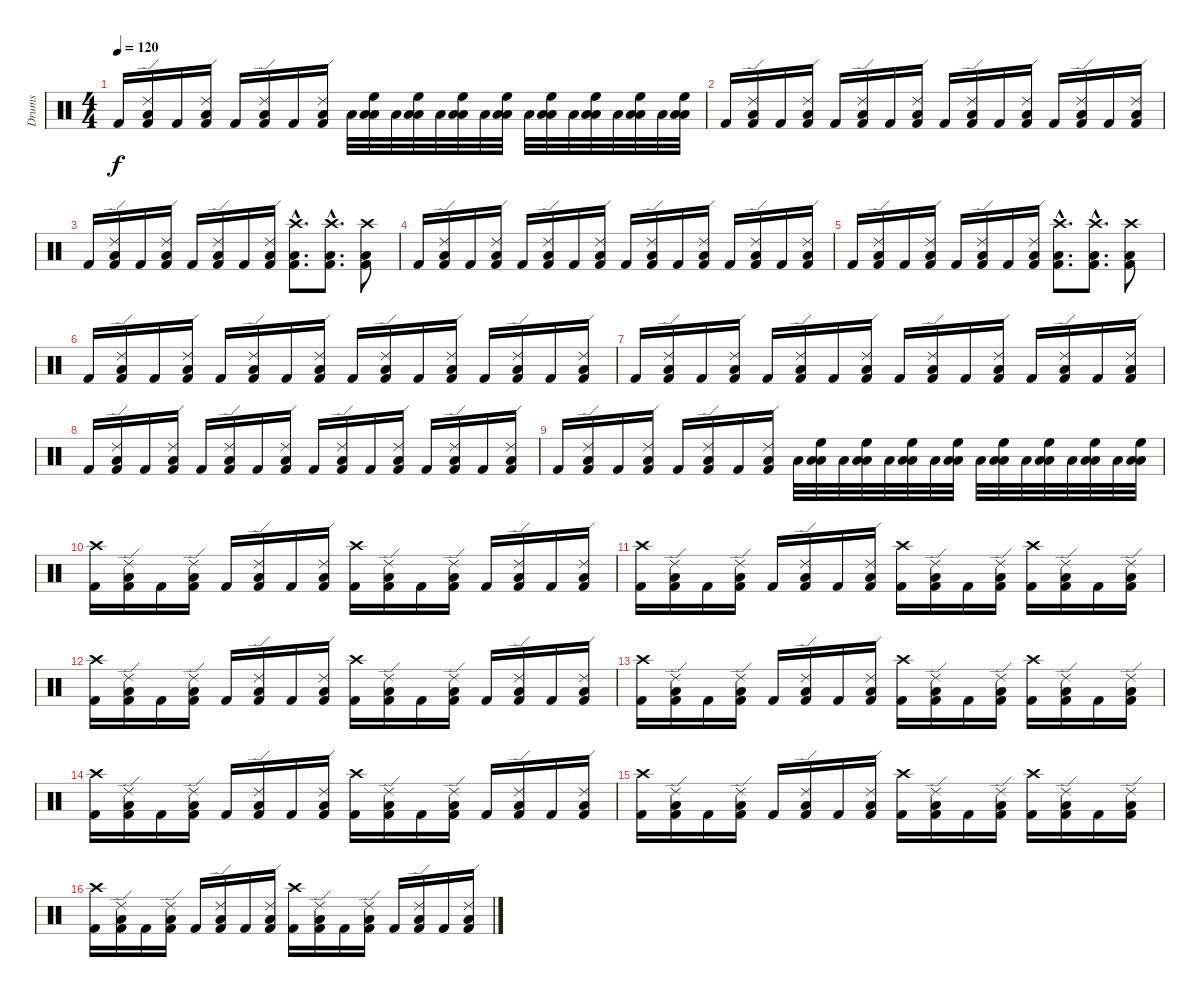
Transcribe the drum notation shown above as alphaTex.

\track ("Drums" "Drums") {instrument percussion}
\staff {score}
\articulation defaults
\ts (4 4)
\tempo 120
\clef neutral
\ks c "Kick (hit) 2".16{dy f}
("Ride (edge) 2" "Low Tom (hit)" "Kick (hit) 2").16 "Kick (hit) 2".16 ("Ride (edge) 2" "Low Tom (hit)" "Kick (hit) 2").16 "Kick (hit) 2".16 ("Ride (edge) 2" "Low Tom (hit)" "Kick (hit) 2").16 "Kick (hit) 2".16 ("Ride (edge) 2" "Low Tom (hit)" "Kick (hit) 2").16 "Low Floor Tom (hit)".32 ("Low Tom (hit)" "High Floor Tom (hit)" "Low Floor Tom (hit)").32 "Low Floor Tom (hit)".32 ("Low Tom (hit)" "High Floor Tom (hit)" "Low Floor Tom (hit)").32 "Low Floor Tom (hit)".32 ("Low Tom (hit)" "High Floor Tom (hit)" "Low Floor Tom (hit)").32 "Low Floor Tom (hit)".32 ("Low Tom (hit)" "High Floor Tom (hit)" "Low Floor Tom (hit)").32 "Low Floor Tom (hit)".32 ("Low Tom (hit)" "High Floor Tom (hit)" "Low Floor Tom (hit)").32 "Low Floor Tom (hit)".32 ("Low Tom (hit)" "High Floor Tom (hit)" "Low Floor Tom (hit)").32 "Low Floor Tom (hit)".32 ("Low Tom (hit)" "High Floor Tom (hit)" "Low Floor Tom (hit)").32 "Low Floor Tom (hit)".32 ("Low Tom (hit)" "High Floor Tom (hit)" "Low Floor Tom (hit)").32 |
"Kick (hit) 2".16 ("Ride (edge) 2" "Low Tom (hit)" "Kick (hit) 2").16 "Kick (hit) 2".16 ("Ride (edge) 2" "Low Tom (hit)" "Kick (hit) 2").16 "Kick (hit) 2".16 ("Ride (edge) 2" "Low Tom (hit)" "Kick (hit) 2").16 "Kick (hit) 2".16 ("Ride (edge) 2" "Low Tom (hit)" "Kick (hit) 2").16 "Kick (hit) 2".16 ("Ride (edge) 2" "Low Tom (hit)" "Kick (hit) 2").16 "Kick (hit) 2".16 ("Ride (edge) 2" "Low Tom (hit)" "Kick (hit) 2").16 "Kick (hit) 2".16 ("Ride (edge) 2" "Low Tom (hit)" "Kick (hit) 2").16 "Kick (hit) 2".16 ("Ride (edge) 2" "Low Tom (hit)" "Kick (hit) 2").16 |
"Kick (hit) 2".16 ("Ride (edge) 2" "Low Tom (hit)" "Kick (hit) 2").16 "Kick (hit) 2".16 ("Ride (edge) 2" "Low Tom (hit)" "Kick (hit) 2").16 "Kick (hit) 2".16 ("Ride (edge) 2" "Low Tom (hit)" "Kick (hit) 2").16 "Kick (hit) 2".16 ("Ride (edge) 2" "Low Tom (hit)" "Kick (hit) 2").16 ("Crash high (hit)"{hac} "Low Tom (hit)"{hac} "Kick (hit) 2"{hac}).8{d} ("Crash high (hit)"{hac} "Low Tom (hit)"{hac} "Kick (hit) 2"{hac}).8{d} ("Crash high (hit)" "Low Tom (hit)" "Kick (hit) 2").8 |
"Kick (hit) 2".16 ("Ride (edge) 2" "Low Tom (hit)" "Kick (hit) 2").16 "Kick (hit) 2".16 ("Ride (edge) 2" "Low Tom (hit)" "Kick (hit) 2").16 "Kick (hit) 2".16 ("Ride (edge) 2" "Low Tom (hit)" "Kick (hit) 2").16 "Kick (hit) 2".16 ("Ride (edge) 2" "Low Tom (hit)" "Kick (hit) 2").16 "Kick (hit) 2".16 ("Ride (edge) 2" "Low Tom (hit)" "Kick (hit) 2").16 "Kick (hit) 2".16 ("Ride (edge) 2" "Low Tom (hit)" "Kick (hit) 2").16 "Kick (hit) 2".16 ("Ride (edge) 2" "Low Tom (hit)" "Kick (hit) 2").16 "Kick (hit) 2".16 ("Ride (edge) 2" "Low Tom (hit)" "Kick (hit) 2").16 |
"Kick (hit) 2".16 ("Ride (edge) 2" "Low Tom (hit)" "Kick (hit) 2").16 "Kick (hit) 2".16 ("Ride (edge) 2" "Low Tom (hit)" "Kick (hit) 2").16 "Kick (hit) 2".16 ("Ride (edge) 2" "Low Tom (hit)" "Kick (hit) 2").16 "Kick (hit) 2".16 ("Ride (edge) 2" "Low Tom (hit)" "Kick (hit) 2").16 ("Crash high (hit)"{hac} "Low Tom (hit)"{hac} "Kick (hit) 2"{hac}).8{d} ("Crash high (hit)"{hac} "Low Tom (hit)"{hac} "Kick (hit) 2"{hac}).8{d} ("Crash high (hit)" "Low Tom (hit)" "Kick (hit) 2").8 |
"Kick (hit) 2".16 ("Ride (edge) 2" "Low Tom (hit)" "Kick (hit) 2").16 "Kick (hit) 2".16 ("Ride (edge) 2" "Low Tom (hit)" "Kick (hit) 2").16 "Kick (hit) 2".16 ("Ride (edge) 2" "Low Tom (hit)" "Kick (hit) 2").16 "Kick (hit) 2".16 ("Ride (edge) 2" "Low Tom (hit)" "Kick (hit) 2").16 "Kick (hit) 2".16 ("Ride (edge) 2" "Low Tom (hit)" "Kick (hit) 2").16 "Kick (hit) 2".16 ("Ride (edge) 2" "Low Tom (hit)" "Kick (hit) 2").16 "Kick (hit) 2".16 ("Ride (edge) 2" "Low Tom (hit)" "Kick (hit) 2").16 "Kick (hit) 2".16 ("Ride (edge) 2" "Low Tom (hit)" "Kick (hit) 2").16 |
"Kick (hit) 2".16 ("Ride (edge) 2" "Low Tom (hit)" "Kick (hit) 2").16 "Kick (hit) 2".16 ("Ride (edge) 2" "Low Tom (hit)" "Kick (hit) 2").16 "Kick (hit) 2".16 ("Ride (edge) 2" "Low Tom (hit)" "Kick (hit) 2").16 "Kick (hit) 2".16 ("Ride (edge) 2" "Low Tom (hit)" "Kick (hit) 2").16 "Kick (hit) 2".16 ("Ride (edge) 2" "Low Tom (hit)" "Kick (hit) 2").16 "Kick (hit) 2".16 ("Ride (edge) 2" "Low Tom (hit)" "Kick (hit) 2").16 "Kick (hit) 2".16 ("Ride (edge) 2" "Low Tom (hit)" "Kick (hit) 2").16 "Kick (hit) 2".16 ("Ride (edge) 2" "Low Tom (hit)" "Kick (hit) 2").16 |
"Kick (hit) 2".16 ("Ride (edge) 2" "Low Tom (hit)" "Kick (hit) 2").16 "Kick (hit) 2".16 ("Ride (edge) 2" "Low Tom (hit)" "Kick (hit) 2").16 "Kick (hit) 2".16 ("Ride (edge) 2" "Low Tom (hit)" "Kick (hit) 2").16 "Kick (hit) 2".16 ("Ride (edge) 2" "Low Tom (hit)" "Kick (hit) 2").16 "Kick (hit) 2".16 ("Ride (edge) 2" "Low Tom (hit)" "Kick (hit) 2").16 "Kick (hit) 2".16 ("Ride (edge) 2" "Low Tom (hit)" "Kick (hit) 2").16 "Kick (hit) 2".16 ("Ride (edge) 2" "Low Tom (hit)" "Kick (hit) 2").16 "Kick (hit) 2".16 ("Ride (edge) 2" "Low Tom (hit)" "Kick (hit) 2").16 |
"Kick (hit) 2".16 ("Ride (edge) 2" "Low Tom (hit)" "Kick (hit) 2").16 "Kick (hit) 2".16 ("Ride (edge) 2" "Low Tom (hit)" "Kick (hit) 2").16 "Kick (hit) 2".16 ("Ride (edge) 2" "Low Tom (hit)" "Kick (hit) 2").16 "Kick (hit) 2".16 ("Ride (edge) 2" "Low Tom (hit)" "Kick (hit) 2").16 "Low Floor Tom (hit)".32 ("Low Tom (hit)" "High Floor Tom (hit)" "Low Floor Tom (hit)").32 "Low Floor Tom (hit)".32 ("Low Tom (hit)" "High Floor Tom (hit)" "Low Floor Tom (hit)").32 "Low Floor Tom (hit)".32 ("Low Tom (hit)" "High Floor Tom (hit)" "Low Floor Tom (hit)").32 "Low Floor Tom (hit)".32 ("Low Tom (hit)" "High Floor Tom (hit)" "Low Floor Tom (hit)").32 "Low Floor Tom (hit)".32 ("Low Tom (hit)" "High Floor Tom (hit)" "Low Floor Tom (hit)").32 "Low Floor Tom (hit)".32 ("Low Tom (hit)" "High Floor Tom (hit)" "Low Floor Tom (hit)").32 "Low Floor Tom (hit)".32 ("Low Tom (hit)" "High Floor Tom (hit)" "Low Floor Tom (hit)").32 "Low Floor Tom (hit)".32 ("Low Tom (hit)" "High Floor Tom (hit)" "Low Floor Tom (hit)").32 |
("Crash high (hit)" "Kick (hit) 2").16 ("Ride (edge) 2" "Low Tom (hit)" "Kick (hit) 2").16 "Kick (hit) 2".16 ("Ride (edge) 2" "Low Tom (hit)" "Kick (hit) 2").16 "Kick (hit) 2".16 ("Ride (edge) 2" "Low Tom (hit)" "Kick (hit) 2").16 "Kick (hit) 2".16 ("Ride (edge) 2" "Low Tom (hit)" "Kick (hit) 2").16 ("Crash high (hit)" "Kick (hit) 2").16 ("Ride (edge) 2" "Low Tom (hit)" "Kick (hit) 2").16 "Kick (hit) 2".16 ("Ride (edge) 2" "Low Tom (hit)" "Kick (hit) 2").16 "Kick (hit) 2".16 ("Ride (edge) 2" "Low Tom (hit)" "Kick (hit) 2").16 "Kick (hit) 2".16 ("Ride (edge) 2" "Low Tom (hit)" "Kick (hit) 2").16 |
("Crash high (hit)" "Kick (hit) 2").16 ("Ride (edge) 2" "Low Tom (hit)" "Kick (hit) 2").16 "Kick (hit) 2".16 ("Ride (edge) 2" "Low Tom (hit)" "Kick (hit) 2").16 "Kick (hit) 2".16 ("Ride (edge) 2" "Low Tom (hit)" "Kick (hit) 2").16 "Kick (hit) 2".16 ("Ride (edge) 2" "Low Tom (hit)" "Kick (hit) 2").16 ("Crash high (hit)" "Kick (hit) 2").16 ("Ride (edge) 2" "Low Tom (hit)" "Kick (hit) 2").16 "Kick (hit) 2".16 ("Ride (edge) 2" "Low Tom (hit)" "Kick (hit) 2").16 ("Crash high (hit)" "Kick (hit) 2").16 ("Ride (edge) 2" "Low Tom (hit)" "Kick (hit) 2").16 "Kick (hit) 2".16 ("Ride (edge) 2" "Low Tom (hit)" "Kick (hit) 2").16 |
("Crash high (hit)" "Kick (hit) 2").16 ("Ride (edge) 2" "Low Tom (hit)" "Kick (hit) 2").16 "Kick (hit) 2".16 ("Ride (edge) 2" "Low Tom (hit)" "Kick (hit) 2").16 "Kick (hit) 2".16 ("Ride (edge) 2" "Low Tom (hit)" "Kick (hit) 2").16 "Kick (hit) 2".16 ("Ride (edge) 2" "Low Tom (hit)" "Kick (hit) 2").16 ("Crash high (hit)" "Kick (hit) 2").16 ("Ride (edge) 2" "Low Tom (hit)" "Kick (hit) 2").16 "Kick (hit) 2".16 ("Ride (edge) 2" "Low Tom (hit)" "Kick (hit) 2").16 "Kick (hit) 2".16 ("Ride (edge) 2" "Low Tom (hit)" "Kick (hit) 2").16 "Kick (hit) 2".16 ("Ride (edge) 2" "Low Tom (hit)" "Kick (hit) 2").16 |
("Crash high (hit)" "Kick (hit) 2").16 ("Ride (edge) 2" "Low Tom (hit)" "Kick (hit) 2").16 "Kick (hit) 2".16 ("Ride (edge) 2" "Low Tom (hit)" "Kick (hit) 2").16 "Kick (hit) 2".16 ("Ride (edge) 2" "Low Tom (hit)" "Kick (hit) 2").16 "Kick (hit) 2".16 ("Ride (edge) 2" "Low Tom (hit)" "Kick (hit) 2").16 ("Crash high (hit)" "Kick (hit) 2").16 ("Ride (edge) 2" "Low Tom (hit)" "Kick (hit) 2").16 "Kick (hit) 2".16 ("Ride (edge) 2" "Low Tom (hit)" "Kick (hit) 2").16 ("Crash high (hit)" "Kick (hit) 2").16 ("Ride (edge) 2" "Low Tom (hit)" "Kick (hit) 2").16 "Kick (hit) 2".16 ("Ride (edge) 2" "Low Tom (hit)" "Kick (hit) 2").16 |
("Crash high (hit)" "Kick (hit) 2").16 ("Ride (edge) 2" "Low Tom (hit)" "Kick (hit) 2").16 "Kick (hit) 2".16 ("Ride (edge) 2" "Low Tom (hit)" "Kick (hit) 2").16 "Kick (hit) 2".16 ("Ride (edge) 2" "Low Tom (hit)" "Kick (hit) 2").16 "Kick (hit) 2".16 ("Ride (edge) 2" "Low Tom (hit)" "Kick (hit) 2").16 ("Crash high (hit)" "Kick (hit) 2").16 ("Ride (edge) 2" "Low Tom (hit)" "Kick (hit) 2").16 "Kick (hit) 2".16 ("Ride (edge) 2" "Low Tom (hit)" "Kick (hit) 2").16 "Kick (hit) 2".16 ("Ride (edge) 2" "Low Tom (hit)" "Kick (hit) 2").16 "Kick (hit) 2".16 ("Ride (edge) 2" "Low Tom (hit)" "Kick (hit) 2").16 |
("Crash high (hit)" "Kick (hit) 2").16 ("Ride (edge) 2" "Low Tom (hit)" "Kick (hit) 2").16 "Kick (hit) 2".16 ("Ride (edge) 2" "Low Tom (hit)" "Kick (hit) 2").16 "Kick (hit) 2".16 ("Ride (edge) 2" "Low Tom (hit)" "Kick (hit) 2").16 "Kick (hit) 2".16 ("Ride (edge) 2" "Low Tom (hit)" "Kick (hit) 2").16 ("Crash high (hit)" "Kick (hit) 2").16 ("Ride (edge) 2" "Low Tom (hit)" "Kick (hit) 2").16 "Kick (hit) 2".16 ("Ride (edge) 2" "Low Tom (hit)" "Kick (hit) 2").16 ("Crash high (hit)" "Kick (hit) 2").16 ("Ride (edge) 2" "Low Tom (hit)" "Kick (hit) 2").16 "Kick (hit) 2".16 ("Ride (edge) 2" "Low Tom (hit)" "Kick (hit) 2").16 |
("Crash high (hit)" "Kick (hit) 2").16 ("Ride (edge) 2" "Low Tom (hit)" "Kick (hit) 2").16 "Kick (hit) 2".16 ("Ride (edge) 2" "Low Tom (hit)" "Kick (hit) 2").16 "Kick (hit) 2".16 ("Ride (edge) 2" "Low Tom (hit)" "Kick (hit) 2").16 "Kick (hit) 2".16 ("Ride (edge) 2" "Low Tom (hit)" "Kick (hit) 2").16 ("Crash high (hit)" "Kick (hit) 2").16 ("Ride (edge) 2" "Low Tom (hit)" "Kick (hit) 2").16 "Kick (hit) 2".16 ("Ride (edge) 2" "Low Tom (hit)" "Kick (hit) 2").16 "Kick (hit) 2".16 ("Ride (edge) 2" "Low Tom (hit)" "Kick (hit) 2").16 "Kick (hit) 2".16 ("Ride (edge) 2" "Low Tom (hit)" "Kick (hit) 2").16
